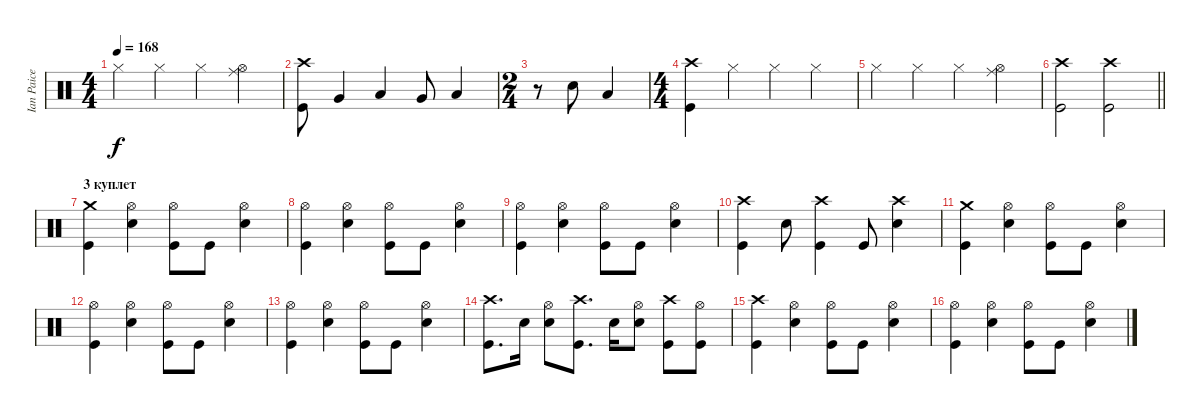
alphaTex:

\track ("Ian Paice" "Ian Paice") {instrument percussion}
\staff {score}
\articulation defaults
\ts (4 4)
\tempo 168
\clef neutral
\ks c "Hi-Hat (closed)".4{dy f} "Hi-Hat (closed)".4 "Hi-Hat (closed)".4
("Hi-Hat (open)" "Ride (middle)").4 |
("Kick (hit)" "Crash high (hit)").8 "Very Low Tom (hit)".4 "Low Tom (hit)".4 "Very Low Tom (hit)".8 "Low Tom (hit)".4 |
\ts (2 4)
r.8 "Snare (hit) 2".8 "Low Tom (hit)".4 |
\ts (4 4)
("Crash high (hit)" "Kick (hit)").4 "Hi-Hat (closed)".4 "Hi-Hat (closed)".4 "Hi-Hat (closed)".4 |
"Hi-Hat (closed)".4 "Hi-Hat (closed)".4 "Hi-Hat (closed)".4 ("Hi-Hat (open)" "Ride (middle)").4 |
\barLineRight lightlight
("Crash high (hit)" "Kick (hit)").2 ("Crash high (hit)" "Kick (hit)").2 |
\section ("" "3 куплет")
("Kick (hit)" "Crash medium (hit)").4 ("Snare (hit) 2" "Hi-Hat (open)").4 ("Kick (hit)" "Hi-Hat (open)").8 "Kick (hit)".8 ("Hi-Hat (open)" "Snare (hit) 2").4 |
("Hi-Hat (open)" "Kick (hit)").4 ("Hi-Hat (open)" "Snare (hit) 2").4 ("Hi-Hat (open)" "Kick (hit)").8 "Kick (hit)".8 ("Snare (hit) 2" "Hi-Hat (open)").4 |
("Hi-Hat (open)" "Kick (hit)").4 ("Hi-Hat (open)" "Snare (hit) 2").4 ("Hi-Hat (open)" "Kick (hit)").8 "Kick (hit)".8 ("Snare (hit) 2" "Hi-Hat (open)").4 |
("Kick (hit)" "Crash high (hit)").4 "Snare (hit) 2".8 ("Kick (hit)" "Crash high (hit)").4 "Kick (hit)".8 ("Snare (hit) 2" "Crash high (hit)").4 |
("Kick (hit)" "Crash medium (hit)").4 ("Hi-Hat (open)" "Snare (hit) 2").4 ("Hi-Hat (open)" "Kick (hit)").8 "Kick (hit)".8 ("Hi-Hat (open)" "Snare (hit) 2").4 |
("Kick (hit)" "Hi-Hat (open)").4 ("Snare (hit) 2" "Hi-Hat (open)").4 ("Kick (hit)" "Hi-Hat (open)").8 "Kick (hit)".8 ("Hi-Hat (open)" "Snare (hit) 2").4 |
("Kick (hit)" "Hi-Hat (open)").4 ("Hi-Hat (open)" "Snare (hit) 2").4 ("Hi-Hat (open)" "Kick (hit)").8 "Kick (hit)".8 ("Hi-Hat (open)" "Snare (hit) 2").4 |
("Crash high (hit)" "Kick (hit)").8{d} "Snare (hit) 2".16 ("Hi-Hat (open)" "Snare (hit) 2").8 ("Crash high (hit)" "Kick (hit)").8{d} "Snare (hit) 2".16 ("Hi-Hat (open)" "Snare (hit) 2").8 ("Crash high (hit)" "Kick (hit)").8 ("Hi-Hat (open)" "Kick (hit)").8 |
("Crash high (hit)" "Kick (hit)").4 ("Snare (hit) 2" "Hi-Hat (open)").4 ("Hi-Hat (open)" "Kick (hit)").8 "Kick (hit)".8 ("Hi-Hat (open)" "Snare (hit) 2").4 |
("Kick (hit)" "Hi-Hat (open)").4 ("Hi-Hat (open)" "Snare (hit) 2").4 ("Hi-Hat (open)" "Kick (hit)").8 "Kick (hit)".8 ("Hi-Hat (open)" "Snare (hit) 2").4
